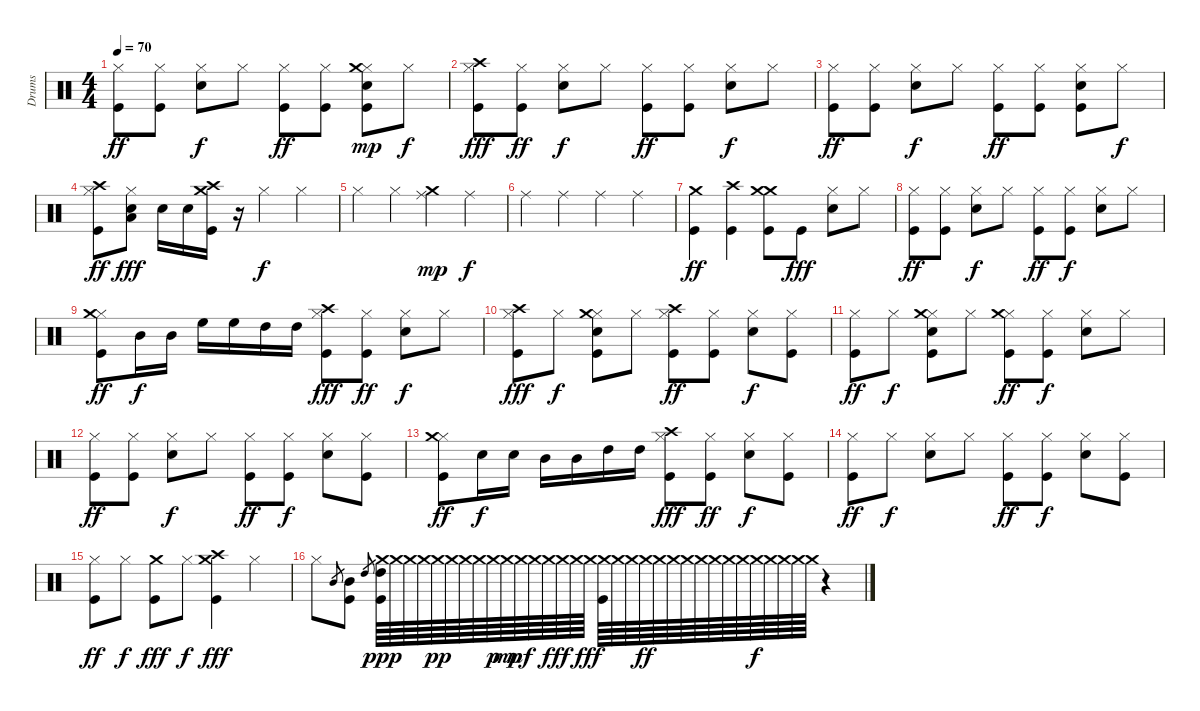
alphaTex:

\track ("Drums" "Drums") {instrument percussion}
\staff {score}
\articulation defaults
\ts (4 4)
\tempo 70
\clef neutral
\ks c
("Hi-Hat (closed)" "Kick (hit)").8{dy ff} ("Hi-Hat (closed)" "Kick (hit)").8 ("Hi-Hat (closed)" "Snare (hit) 2").8{dy f} "Hi-Hat (closed)".8 ("Hi-Hat (closed)" "Kick (hit)").8{dy ff} ("Hi-Hat (closed)" "Kick (hit)").8 ("Hi-Hat (closed)" "Snare (hit) 2" "Kick (hit)" "Crash medium (hit)").8{dy mp} "Hi-Hat (closed)".8{dy f} |
("Hi-Hat (closed)" "Kick (hit)" "Crash high (hit)").8{dy fff} ("Hi-Hat (closed)" "Kick (hit)").8{dy ff} ("Hi-Hat (closed)" "Snare (hit) 2").8{dy f} "Hi-Hat (closed)".8 ("Hi-Hat (closed)" "Kick (hit)").8{dy ff} ("Hi-Hat (closed)" "Kick (hit)").8 ("Hi-Hat (closed)" "Snare (hit) 2").8{dy f} "Hi-Hat (closed)".8 |
("Hi-Hat (closed)" "Kick (hit)").8{dy ff} ("Hi-Hat (closed)" "Kick (hit)").8 ("Hi-Hat (closed)" "Snare (hit) 2").8{dy f} "Hi-Hat (closed)".8 ("Hi-Hat (closed)" "Kick (hit)").8{dy ff} ("Hi-Hat (closed)" "Kick (hit)").8 ("Hi-Hat (closed)" "Snare (hit) 2" "Kick (hit)").8 "Hi-Hat (closed)".8{dy f} |
("Hi-Hat (closed)" "Kick (hit)" "Crash high (hit)").8{dy ff} ("Hi-Hat (closed)" "Snare (hit) 2" "Low Tom (hit)").8{dy fff} "Snare (hit) 2".16 "Snare (hit) 2".16 ("Kick (hit)" "Crash high (hit)" "Crash medium (hit)").16 r.16 "Hi-Hat (closed)".4{dy f} "Hi-Hat (closed)".4 |
"Hi-Hat (closed)".4 "Hi-Hat (closed)".4 ("Ride (middle)" "Crash medium (hit)").4{dy mp} "Ride (middle)".4{dy f} |
"Ride (middle)".4 "Ride (middle)".4 "Ride (middle)".4 "Ride (middle)".4 |
("Kick (hit)" "Crash medium (hit)").4{dy ff} ("Kick (hit)" "Crash high (hit)").4 ("Kick (hit)" "Crash medium (hit)" "Crash medium (hit)").8 "Kick (hit)".8{dy fff} ("Hi-Hat (closed)" "Snare (hit) 2").8 "Hi-Hat (closed)".8 |
("Hi-Hat (closed)" "Kick (hit)").8{dy ff} ("Hi-Hat (closed)" "Kick (hit)").8 ("Hi-Hat (closed)" "Snare (hit) 2").8{dy f} "Hi-Hat (closed)".8 ("Hi-Hat (closed)" "Kick (hit)").8{dy ff} ("Hi-Hat (closed)" "Kick (hit)").8{dy f} ("Hi-Hat (closed)" "Snare (hit) 2").8 "Hi-Hat (closed)".8 |
("Hi-Hat (closed)" "Kick (hit)" "Crash medium (hit)").8{dy ff} "Mid Tom (hit)".16{dy f} "Mid Tom (hit)".16 "High Floor Tom (hit)".16 "High Floor Tom (hit)".16 "High Tom (hit)".16 "High Tom (hit)".16 ("Hi-Hat (closed)" "Kick (hit)" "Crash high (hit)").8{dy fff} ("Hi-Hat (closed)" "Kick (hit)").8{dy ff} ("Hi-Hat (closed)" "Snare (hit) 2").8{dy f} "Hi-Hat (closed)".8 |
("Hi-Hat (closed)" "Kick (hit)" "Crash high (hit)").8{dy fff} "Hi-Hat (closed)".8{dy f} ("Hi-Hat (closed)" "Snare (hit) 2" "Kick (hit)" "Crash medium (hit)").8 "Hi-Hat (closed)".8 ("Hi-Hat (closed)" "Kick (hit)" "Crash high (hit)").8{dy ff} ("Hi-Hat (closed)" "Kick (hit)").8 ("Hi-Hat (closed)" "Snare (hit) 2").8{dy f} ("Hi-Hat (closed)" "Kick (hit)").8 |
("Hi-Hat (closed)" "Kick (hit)").8{dy ff} "Hi-Hat (closed)".8{dy f} ("Hi-Hat (closed)" "Snare (hit) 2" "Kick (hit)" "Crash medium (hit)").8 "Hi-Hat (closed)".8 ("Hi-Hat (closed)" "Kick (hit)" "Crash medium (hit)").8{dy ff} ("Hi-Hat (closed)" "Kick (hit)").8{dy f} ("Hi-Hat (closed)" "Snare (hit) 2").8 "Hi-Hat (closed)".8 |
("Hi-Hat (closed)" "Kick (hit)").8{dy ff} ("Hi-Hat (closed)" "Kick (hit)").8 ("Hi-Hat (closed)" "Snare (hit) 2").8{dy f} "Hi-Hat (closed)".8 ("Hi-Hat (closed)" "Kick (hit)").8{dy ff} ("Hi-Hat (closed)" "Kick (hit)").8{dy f} ("Hi-Hat (closed)" "Snare (hit) 2").8 ("Hi-Hat (closed)" "Kick (hit)").8 |
("Hi-Hat (closed)" "Kick (hit)" "Crash medium (hit)").8{dy ff} "Snare (hit) 2".16{dy f} "Snare (hit) 2".16 "Mid Tom (hit)".16 "Mid Tom (hit)".16 "High Tom (hit)".16 "High Tom (hit)".16 ("Hi-Hat (closed)" "Kick (hit)" "Crash high (hit)").8{dy fff} ("Hi-Hat (closed)" "Kick (hit)").8{dy ff} ("Hi-Hat (closed)" "Snare (hit) 2").8{dy f} ("Hi-Hat (closed)" "Kick (hit)").8 |
("Hi-Hat (closed)" "Kick (hit)").8{dy ff} "Hi-Hat (closed)".8{dy f} ("Hi-Hat (closed)" "Snare (hit) 2").8 "Hi-Hat (closed)".8 ("Hi-Hat (closed)" "Kick (hit)").8{dy ff} ("Hi-Hat (closed)" "Kick (hit)").8{dy f} ("Hi-Hat (closed)" "Snare (hit) 2").8 ("Hi-Hat (closed)" "Kick (hit)").8 |
("Hi-Hat (closed)" "Kick (hit)").8{dy ff} "Hi-Hat (closed)".8{dy f} ("Kick (hit)" "Crash medium (hit)").8{dy fff} "Hi-Hat (closed)".8{dy f} ("Kick (hit)" "Crash high (hit)" "Crash medium (hit)").4{dy fff} "Hi-Hat (closed)".4 |
"Hi-Hat (closed)".8 "Mid Tom (hit)".8{gr} ("Mid Tom (hit)" "Kick (hit)").8 "High Tom (hit)".8{gr} ("High Tom (hit)" "Kick (hit)" "Crash medium (hit)").64{dy ppp} "Crash medium (hit)".64 "Crash medium (hit)".64 "Crash medium (hit)".64 "Crash medium (hit)".64{dy pp} "Crash medium (hit)".64 "Crash medium (hit)".64 "Crash medium (hit)".64 "Crash medium (hit)".64{dy p} "Crash medium (hit)".64{dy mp} "Crash medium (hit)".64{dy mf} "Crash medium (hit)".64 "Crash medium (hit)".64{dy f} "Crash medium (hit)".64{dy ff} "Crash medium (hit)".64 "Crash medium (hit)".64{dy fff} ("Kick (hit)" "Crash medium (hit)").64 "Crash medium (hit)".64 "Crash medium (hit)".64 "Crash medium (hit)".64{dy ff} "Crash medium (hit)".64 "Crash medium (hit)".64 "Crash medium (hit)".64 "Crash medium (hit)".64 "Crash medium (hit)".64 "Crash medium (hit)".64 "Crash medium (hit)".64 "Crash medium (hit)".64{dy f} "Crash medium (hit)".64 "Crash medium (hit)".64 "Crash medium (hit)".64 "Crash medium (hit)".64 r.4
